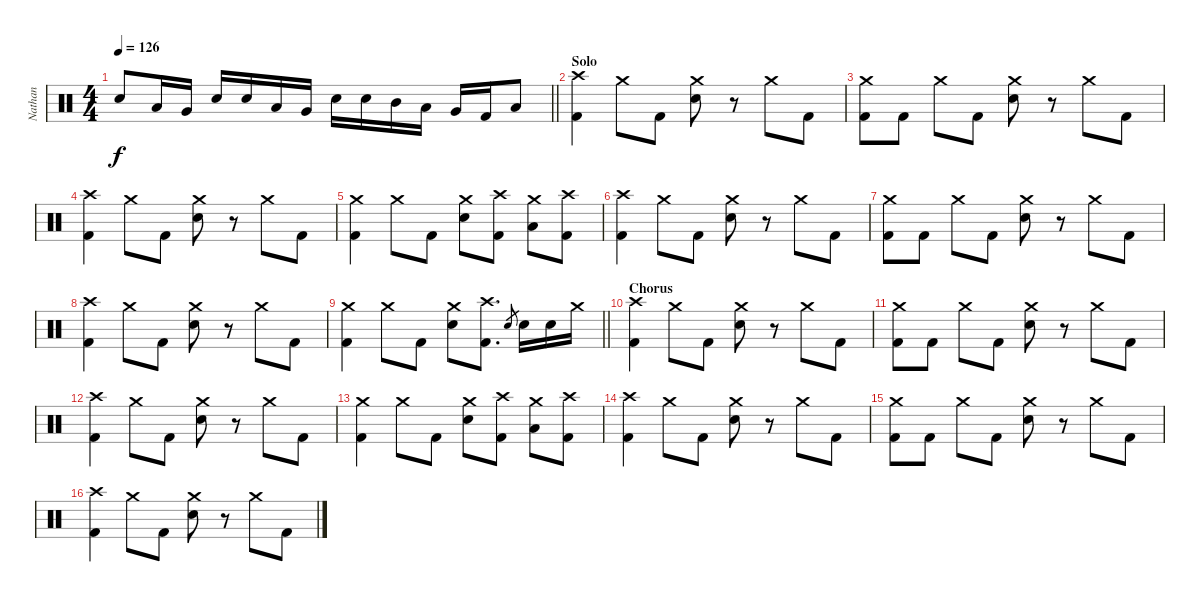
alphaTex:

\track ("Nathan" "Nathan") {instrument percussion}
\staff {score}
\articulation defaults
\ts (4 4)
\tempo 126
\clef neutral
\barLineRight lightlight
\ks c "Electric Snare (hit)".8{dy f} "Low Tom (hit)".16 "Very Low Tom (hit)".16 "Electric Snare (hit)".16 "Electric Snare (hit)".16 "Low Tom (hit)".16 "Very Low Tom (hit)".16 "Electric Snare (hit)".16 "Electric Snare (hit)".16 "Mid Tom (hit)".16 "Low Tom (hit)".16 "Very Low Tom (hit)".16 "Kick (hit) 2".16 "Low Floor Tom (hit)".8
|
\section ("" "Solo")
("Crash high (hit)" "Kick (hit) 2").4 "Crash medium (hit)".8 "Kick (hit) 2".8 ("Crash medium (hit)" "Electric Snare (hit)").8 r.8 "Crash medium (hit)".8 "Kick (hit) 2".8 |
("Crash medium (hit)" "Kick (hit) 2").8 "Kick (hit) 2".8 "Crash medium (hit)".8 "Kick (hit) 2".8 ("Crash medium (hit)" "Electric Snare (hit)").8 r.8 "Crash medium (hit)".8 "Kick (hit) 2".8 |
("Crash high (hit)" "Kick (hit) 2").4 "Crash medium (hit)".8 "Kick (hit) 2".8 ("Crash medium (hit)" "Electric Snare (hit)").8 r.8 "Crash medium (hit)".8 "Kick (hit) 2".8 |
("Crash medium (hit)" "Kick (hit) 2").4 "Crash medium (hit)".8 "Kick (hit) 2".8 ("Crash medium (hit)" "Electric Snare (hit)").8 ("Crash high (hit)" "Kick (hit) 2").8 ("Crash medium (hit)" "Low Floor Tom (hit)").8 ("Crash high (hit)" "Kick (hit) 2").8 |
("Crash high (hit)" "Kick (hit) 2").4 "Crash medium (hit)".8 "Kick (hit) 2".8 ("Crash medium (hit)" "Electric Snare (hit)").8 r.8 "Crash medium (hit)".8 "Kick (hit) 2".8 |
("Crash medium (hit)" "Kick (hit) 2").8 "Kick (hit) 2".8 "Crash medium (hit)".8 "Kick (hit) 2".8 ("Crash medium (hit)" "Electric Snare (hit)").8 r.8 "Crash medium (hit)".8 "Kick (hit) 2".8 |
("Crash high (hit)" "Kick (hit) 2").4 "Crash medium (hit)".8 "Kick (hit) 2".8 ("Crash medium (hit)" "Electric Snare (hit)").8 r.8 "Crash medium (hit)".8 "Kick (hit) 2".8 |
\barLineRight lightlight
("Crash medium (hit)" "Kick (hit) 2").4 "Crash medium (hit)".8 "Kick (hit) 2".8 ("Crash medium (hit)" "Electric Snare (hit)").8 ("Crash high (hit)" "Kick (hit) 2").8{d} "Electric Snare (hit)".8{gr} "Electric Snare (hit)".16 "Electric Snare (hit)".16 "Crash medium (hit)".16 |
\section ("" "Chorus")
("Crash high (hit)" "Kick (hit) 2").4 "Crash medium (hit)".8 "Kick (hit) 2".8 ("Crash medium (hit)" "Electric Snare (hit)").8 r.8 "Crash medium (hit)".8 "Kick (hit) 2".8 |
("Crash medium (hit)" "Kick (hit) 2").8 "Kick (hit) 2".8 "Crash medium (hit)".8 "Kick (hit) 2".8 ("Crash medium (hit)" "Electric Snare (hit)").8 r.8 "Crash medium (hit)".8 "Kick (hit) 2".8 |
("Crash high (hit)" "Kick (hit) 2").4 "Crash medium (hit)".8 "Kick (hit) 2".8 ("Crash medium (hit)" "Electric Snare (hit)").8 r.8 "Crash medium (hit)".8 "Kick (hit) 2".8 |
("Crash medium (hit)" "Kick (hit) 2").4 "Crash medium (hit)".8 "Kick (hit) 2".8 ("Crash medium (hit)" "Electric Snare (hit)").8 ("Crash high (hit)" "Kick (hit) 2").8 ("Crash medium (hit)" "Low Floor Tom (hit)").8 ("Crash high (hit)" "Kick (hit) 2").8 |
("Crash high (hit)" "Kick (hit) 2").4 "Crash medium (hit)".8 "Kick (hit) 2".8 ("Crash medium (hit)" "Electric Snare (hit)").8 r.8 "Crash medium (hit)".8 "Kick (hit) 2".8 |
("Crash medium (hit)" "Kick (hit) 2").8 "Kick (hit) 2".8 "Crash medium (hit)".8 "Kick (hit) 2".8 ("Crash medium (hit)" "Electric Snare (hit)").8 r.8 "Crash medium (hit)".8 "Kick (hit) 2".8 |
("Crash high (hit)" "Kick (hit) 2").4 "Crash medium (hit)".8 "Kick (hit) 2".8 ("Crash medium (hit)" "Electric Snare (hit)").8 r.8 "Crash medium (hit)".8 "Kick (hit) 2".8
